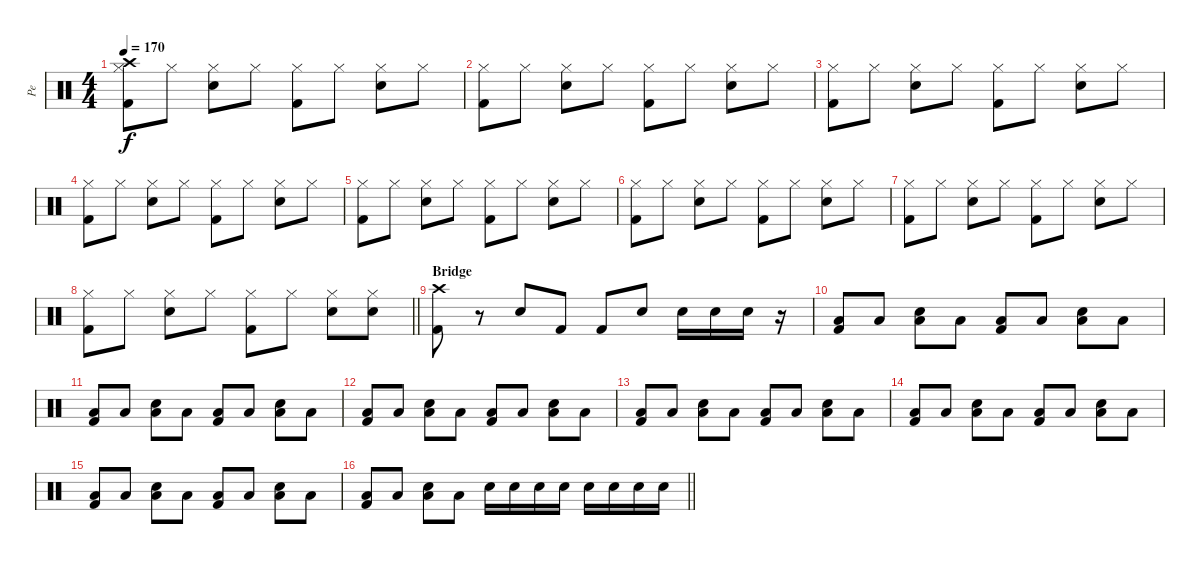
\track ("Pe" "Pe") {instrument percussion}
\staff {score}
\articulation defaults
\ts (4 4)
\tempo 170
\clef neutral
\ks c
("Crash high (hit)" "Hi-Hat (closed)" "Kick (hit) 2").8{dy f} "Hi-Hat (closed)".8 ("Hi-Hat (closed)" "Snare (hit) 2").8 "Hi-Hat (closed)".8 ("Hi-Hat (closed)" "Kick (hit) 2").8 "Hi-Hat (closed)".8 ("Hi-Hat (closed)" "Snare (hit) 2").8 "Hi-Hat (closed)".8 |
("Hi-Hat (closed)" "Kick (hit) 2").8 "Hi-Hat (closed)".8 ("Hi-Hat (closed)" "Snare (hit) 2").8 "Hi-Hat (closed)".8 ("Hi-Hat (closed)" "Kick (hit) 2").8 "Hi-Hat (closed)".8 ("Hi-Hat (closed)" "Snare (hit) 2").8 "Hi-Hat (closed)".8 |
("Hi-Hat (closed)" "Kick (hit) 2").8 "Hi-Hat (closed)".8 ("Hi-Hat (closed)" "Snare (hit) 2").8 "Hi-Hat (closed)".8 ("Hi-Hat (closed)" "Kick (hit) 2").8 "Hi-Hat (closed)".8 ("Hi-Hat (closed)" "Snare (hit) 2").8 "Hi-Hat (closed)".8 |
("Hi-Hat (closed)" "Kick (hit) 2").8 "Hi-Hat (closed)".8 ("Hi-Hat (closed)" "Snare (hit) 2").8 "Hi-Hat (closed)".8 ("Hi-Hat (closed)" "Kick (hit) 2").8 "Hi-Hat (closed)".8 ("Hi-Hat (closed)" "Snare (hit) 2").8 "Hi-Hat (closed)".8 |
("Hi-Hat (closed)" "Kick (hit) 2").8 "Hi-Hat (closed)".8 ("Hi-Hat (closed)" "Snare (hit) 2").8 "Hi-Hat (closed)".8 ("Hi-Hat (closed)" "Kick (hit) 2").8 "Hi-Hat (closed)".8 ("Hi-Hat (closed)" "Snare (hit) 2").8 "Hi-Hat (closed)".8 |
("Hi-Hat (closed)" "Kick (hit) 2").8 "Hi-Hat (closed)".8 ("Hi-Hat (closed)" "Snare (hit) 2").8 "Hi-Hat (closed)".8 ("Hi-Hat (closed)" "Kick (hit) 2").8 "Hi-Hat (closed)".8 ("Hi-Hat (closed)" "Snare (hit) 2").8 "Hi-Hat (closed)".8 |
("Hi-Hat (closed)" "Kick (hit) 2").8 "Hi-Hat (closed)".8 ("Hi-Hat (closed)" "Snare (hit) 2").8 "Hi-Hat (closed)".8 ("Hi-Hat (closed)" "Kick (hit) 2").8 "Hi-Hat (closed)".8 ("Hi-Hat (closed)" "Snare (hit) 2").8 "Hi-Hat (closed)".8 |
\barLineRight lightlight
("Hi-Hat (closed)" "Kick (hit) 2").8 "Hi-Hat (closed)".8 ("Hi-Hat (closed)" "Snare (hit) 2").8 "Hi-Hat (closed)".8 ("Hi-Hat (closed)" "Kick (hit) 2").8 "Hi-Hat (closed)".8 ("Hi-Hat (closed)" "Snare (hit) 2").8 ("Hi-Hat (closed)" "Snare (hit) 2").8 |
\section ("" "Bridge")
("Crash high (hit)" "Kick (hit) 2").8 r.8 "Snare (hit) 2".8 "Kick (hit) 2".8 "Kick (hit) 2".8 "Snare (hit) 2".8 "Snare (hit) 2".16 "Snare (hit) 2".16 "Snare (hit) 2".16 r.16 |
("Low Floor Tom (hit)" "Kick (hit) 2").8 "Low Floor Tom (hit)".8 ("Snare (hit) 2" "Low Floor Tom (hit)").8 "Low Floor Tom (hit)".8 ("Low Floor Tom (hit)" "Kick (hit) 2").8 "Low Floor Tom (hit)".8 ("Snare (hit) 2" "Low Floor Tom (hit)").8 "Low Floor Tom (hit)".8 |
("Low Floor Tom (hit)" "Kick (hit) 2").8 "Low Floor Tom (hit)".8 ("Snare (hit) 2" "Low Floor Tom (hit)").8 "Low Floor Tom (hit)".8 ("Low Floor Tom (hit)" "Kick (hit) 2").8 "Low Floor Tom (hit)".8 ("Snare (hit) 2" "Low Floor Tom (hit)").8 "Low Floor Tom (hit)".8 |
("Low Floor Tom (hit)" "Kick (hit) 2").8 "Low Floor Tom (hit)".8 ("Snare (hit) 2" "Low Floor Tom (hit)").8 "Low Floor Tom (hit)".8 ("Low Floor Tom (hit)" "Kick (hit) 2").8 "Low Floor Tom (hit)".8 ("Snare (hit) 2" "Low Floor Tom (hit)").8 "Low Floor Tom (hit)".8 |
("Low Floor Tom (hit)" "Kick (hit) 2").8 "Low Floor Tom (hit)".8 ("Snare (hit) 2" "Low Floor Tom (hit)").8 "Low Floor Tom (hit)".8 ("Low Floor Tom (hit)" "Kick (hit) 2").8 "Low Floor Tom (hit)".8 ("Snare (hit) 2" "Low Floor Tom (hit)").8 "Low Floor Tom (hit)".8 |
("Low Floor Tom (hit)" "Kick (hit) 2").8 "Low Floor Tom (hit)".8 ("Snare (hit) 2" "Low Floor Tom (hit)").8 "Low Floor Tom (hit)".8 ("Low Floor Tom (hit)" "Kick (hit) 2").8 "Low Floor Tom (hit)".8 ("Snare (hit) 2" "Low Floor Tom (hit)").8 "Low Floor Tom (hit)".8 |
("Low Floor Tom (hit)" "Kick (hit) 2").8 "Low Floor Tom (hit)".8 ("Snare (hit) 2" "Low Floor Tom (hit)").8 "Low Floor Tom (hit)".8 ("Low Floor Tom (hit)" "Kick (hit) 2").8 "Low Floor Tom (hit)".8 ("Snare (hit) 2" "Low Floor Tom (hit)").8 "Low Floor Tom (hit)".8 |
\barLineRight lightlight
("Low Floor Tom (hit)" "Kick (hit) 2").8 "Low Floor Tom (hit)".8 ("Snare (hit) 2" "Low Floor Tom (hit)").8 "Low Floor Tom (hit)".8 "Snare (hit) 2".16 "Snare (hit) 2".16 "Snare (hit) 2".16 "Snare (hit) 2".16 "Snare (hit) 2".16 "Snare (hit) 2".16 "Snare (hit) 2".16 "Snare (hit) 2".16
